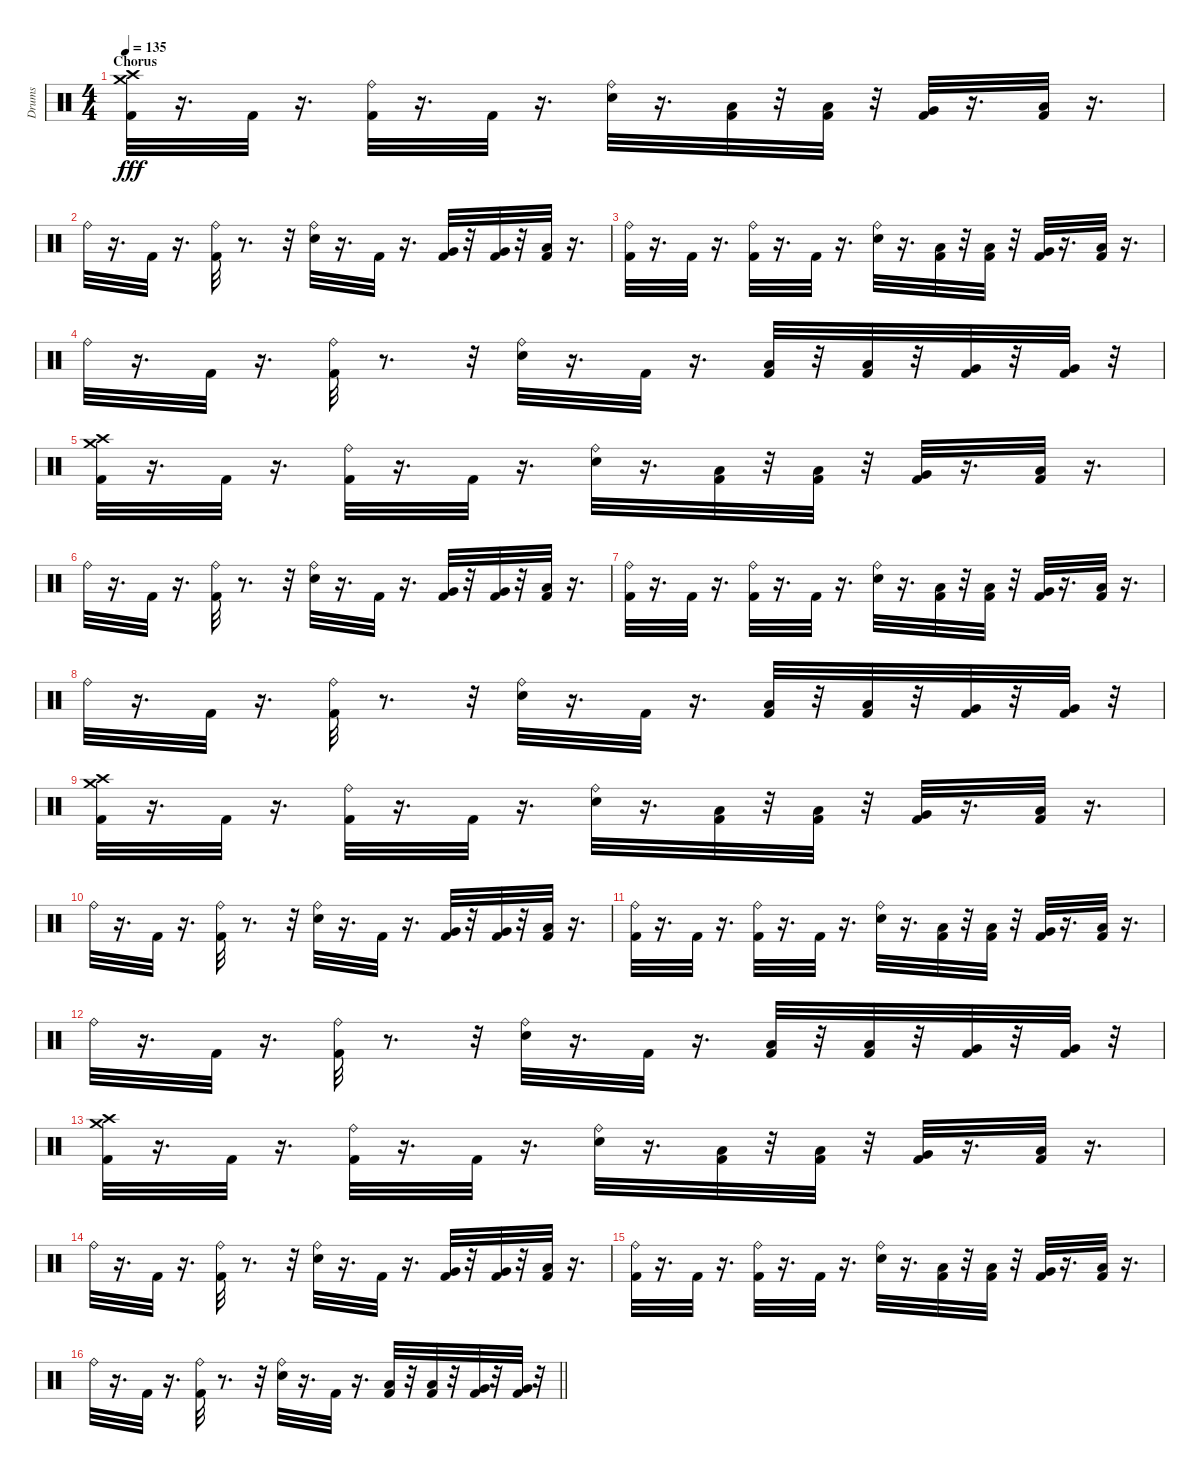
\track ("Drums" "Drums") {instrument percussion}
\staff {score}
\articulation defaults
\ts (4 4)
\section ("" "Chorus")
\tempo 135
\clef neutral
\ks c
("Crash medium (hit)" "Crash high (hit)" "Kick (hit) 2").32{dy fff} r.16{d} "Kick (hit) 2".32 r.16{d} ("Ride (bell)" "Kick (hit) 2").32 r.16{d} "Kick (hit) 2".32 r.16{d} ("Ride (bell)" "Snare (hit) 2").32 r.16{d} ("Low Tom (hit)" "Kick (hit) 2").32 r.32 ("Low Tom (hit)" "Kick (hit) 2").32 r.32 ("Very Low Tom (hit)" "Kick (hit) 2").32 r.16{d} ("Low Floor Tom (hit)" "Kick (hit) 2").32 r.16{d} |
"Ride (bell)".32 r.16{d} "Kick (hit) 2".32 r.16{d} ("Ride (bell)" "Kick (hit) 2").32 r.8{d} r.32 ("Ride (bell)" "Snare (hit) 2").32 r.16{d} "Kick (hit) 2".32 r.16{d} ("Very Low Tom (hit)" "Kick (hit) 2").32 r.32 ("Very Low Tom (hit)" "Kick (hit) 2").32 r.32 ("Low Floor Tom (hit)" "Kick (hit) 2").32 r.16{d} |
("Ride (bell)" "Kick (hit) 2").32 r.16{d} "Kick (hit) 2".32 r.16{d} ("Ride (bell)" "Kick (hit) 2").32 r.16{d} "Kick (hit) 2".32 r.16{d} ("Ride (bell)" "Snare (hit) 2").32 r.16{d} ("Low Tom (hit)" "Kick (hit) 2").32 r.32 ("Low Tom (hit)" "Kick (hit) 2").32 r.32 ("Very Low Tom (hit)" "Kick (hit) 2").32 r.16{d} ("Low Floor Tom (hit)" "Kick (hit) 2").32 r.16{d} |
"Ride (bell)".32 r.16{d} "Kick (hit) 2".32 r.16{d} ("Kick (hit) 2" "Ride (bell)").32 r.8{d} r.32 ("Snare (hit) 2" "Ride (bell)").32 r.16{d} "Kick (hit) 2".32 r.16{d} ("Low Tom (hit)" "Kick (hit) 2").32 r.32 ("Low Tom (hit)" "Kick (hit) 2").32 r.32 ("Very Low Tom (hit)" "Kick (hit) 2").32 r.32 ("Very Low Tom (hit)" "Kick (hit) 2").32 r.32 |
("Crash medium (hit)" "Crash high (hit)" "Kick (hit) 2").32 r.16{d} "Kick (hit) 2".32 r.16{d} ("Ride (bell)" "Kick (hit) 2").32 r.16{d} "Kick (hit) 2".32 r.16{d} ("Ride (bell)" "Snare (hit) 2").32 r.16{d} ("Low Tom (hit)" "Kick (hit) 2").32 r.32 ("Low Tom (hit)" "Kick (hit) 2").32 r.32 ("Very Low Tom (hit)" "Kick (hit) 2").32 r.16{d} ("Low Floor Tom (hit)" "Kick (hit) 2").32 r.16{d} |
"Ride (bell)".32 r.16{d} "Kick (hit) 2".32 r.16{d} ("Ride (bell)" "Kick (hit) 2").32 r.8{d} r.32 ("Ride (bell)" "Snare (hit) 2").32 r.16{d} "Kick (hit) 2".32 r.16{d} ("Very Low Tom (hit)" "Kick (hit) 2").32 r.32 ("Very Low Tom (hit)" "Kick (hit) 2").32 r.32 ("Low Floor Tom (hit)" "Kick (hit) 2").32 r.16{d} |
("Ride (bell)" "Kick (hit) 2").32 r.16{d} "Kick (hit) 2".32 r.16{d} ("Ride (bell)" "Kick (hit) 2").32 r.16{d} "Kick (hit) 2".32 r.16{d} ("Ride (bell)" "Snare (hit) 2").32 r.16{d} ("Low Tom (hit)" "Kick (hit) 2").32 r.32 ("Low Tom (hit)" "Kick (hit) 2").32 r.32 ("Very Low Tom (hit)" "Kick (hit) 2").32 r.16{d} ("Low Floor Tom (hit)" "Kick (hit) 2").32 r.16{d} |
"Ride (bell)".32 r.16{d} "Kick (hit) 2".32 r.16{d} ("Kick (hit) 2" "Ride (bell)").32 r.8{d} r.32 ("Snare (hit) 2" "Ride (bell)").32 r.16{d} "Kick (hit) 2".32 r.16{d} ("Low Tom (hit)" "Kick (hit) 2").32 r.32 ("Low Tom (hit)" "Kick (hit) 2").32 r.32 ("Very Low Tom (hit)" "Kick (hit) 2").32 r.32 ("Very Low Tom (hit)" "Kick (hit) 2").32 r.32 |
("Crash medium (hit)" "Crash high (hit)" "Kick (hit) 2").32 r.16{d} "Kick (hit) 2".32 r.16{d} ("Ride (bell)" "Kick (hit) 2").32 r.16{d} "Kick (hit) 2".32 r.16{d} ("Ride (bell)" "Snare (hit) 2").32 r.16{d} ("Low Tom (hit)" "Kick (hit) 2").32 r.32 ("Low Tom (hit)" "Kick (hit) 2").32 r.32 ("Very Low Tom (hit)" "Kick (hit) 2").32 r.16{d} ("Low Floor Tom (hit)" "Kick (hit) 2").32 r.16{d} |
"Ride (bell)".32 r.16{d} "Kick (hit) 2".32 r.16{d} ("Ride (bell)" "Kick (hit) 2").32 r.8{d} r.32 ("Ride (bell)" "Snare (hit) 2").32 r.16{d} "Kick (hit) 2".32 r.16{d} ("Very Low Tom (hit)" "Kick (hit) 2").32 r.32 ("Very Low Tom (hit)" "Kick (hit) 2").32 r.32 ("Low Floor Tom (hit)" "Kick (hit) 2").32 r.16{d} |
("Ride (bell)" "Kick (hit) 2").32 r.16{d} "Kick (hit) 2".32 r.16{d} ("Ride (bell)" "Kick (hit) 2").32 r.16{d} "Kick (hit) 2".32 r.16{d} ("Ride (bell)" "Snare (hit) 2").32 r.16{d} ("Low Tom (hit)" "Kick (hit) 2").32 r.32 ("Low Tom (hit)" "Kick (hit) 2").32 r.32 ("Very Low Tom (hit)" "Kick (hit) 2").32 r.16{d} ("Low Floor Tom (hit)" "Kick (hit) 2").32 r.16{d} |
"Ride (bell)".32 r.16{d} "Kick (hit) 2".32 r.16{d} ("Kick (hit) 2" "Ride (bell)").32 r.8{d} r.32 ("Snare (hit) 2" "Ride (bell)").32 r.16{d} "Kick (hit) 2".32 r.16{d} ("Low Tom (hit)" "Kick (hit) 2").32 r.32 ("Low Tom (hit)" "Kick (hit) 2").32 r.32 ("Very Low Tom (hit)" "Kick (hit) 2").32 r.32 ("Very Low Tom (hit)" "Kick (hit) 2").32 r.32 |
("Crash medium (hit)" "Crash high (hit)" "Kick (hit) 2").32 r.16{d} "Kick (hit) 2".32 r.16{d} ("Ride (bell)" "Kick (hit) 2").32 r.16{d} "Kick (hit) 2".32 r.16{d} ("Ride (bell)" "Snare (hit) 2").32 r.16{d} ("Low Tom (hit)" "Kick (hit) 2").32 r.32 ("Low Tom (hit)" "Kick (hit) 2").32 r.32 ("Very Low Tom (hit)" "Kick (hit) 2").32 r.16{d} ("Low Floor Tom (hit)" "Kick (hit) 2").32 r.16{d} |
"Ride (bell)".32 r.16{d} "Kick (hit) 2".32 r.16{d} ("Ride (bell)" "Kick (hit) 2").32 r.8{d} r.32 ("Ride (bell)" "Snare (hit) 2").32 r.16{d} "Kick (hit) 2".32 r.16{d} ("Very Low Tom (hit)" "Kick (hit) 2").32 r.32 ("Very Low Tom (hit)" "Kick (hit) 2").32 r.32 ("Low Floor Tom (hit)" "Kick (hit) 2").32 r.16{d} |
("Ride (bell)" "Kick (hit) 2").32 r.16{d} "Kick (hit) 2".32 r.16{d} ("Ride (bell)" "Kick (hit) 2").32 r.16{d} "Kick (hit) 2".32 r.16{d} ("Ride (bell)" "Snare (hit) 2").32 r.16{d} ("Low Tom (hit)" "Kick (hit) 2").32 r.32 ("Low Tom (hit)" "Kick (hit) 2").32 r.32 ("Very Low Tom (hit)" "Kick (hit) 2").32 r.16{d} ("Low Floor Tom (hit)" "Kick (hit) 2").32 r.16{d} |
\barLineRight lightlight "Ride (bell)".32
r.16{d} "Kick (hit) 2".32 r.16{d} ("Kick (hit) 2" "Ride (bell)").32 r.8{d} r.32 ("Snare (hit) 2" "Ride (bell)").32 r.16{d} "Kick (hit) 2".32 r.16{d} ("Low Tom (hit)" "Kick (hit) 2").32 r.32 ("Low Tom (hit)" "Kick (hit) 2").32 r.32 ("Very Low Tom (hit)" "Kick (hit) 2").32 r.32 ("Very Low Tom (hit)" "Kick (hit) 2").32 r.32
